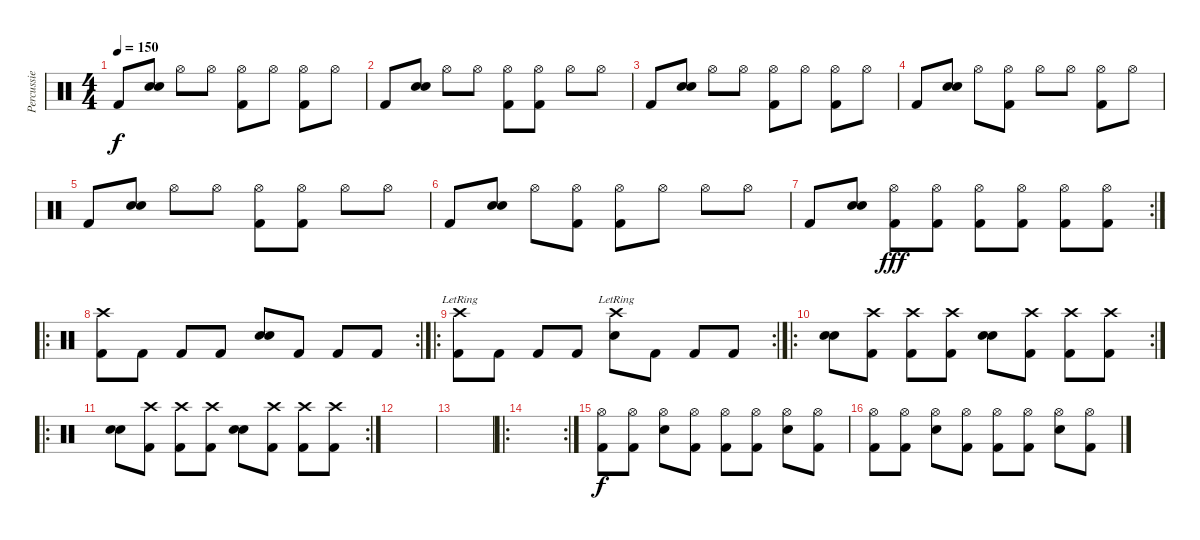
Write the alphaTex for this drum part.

\track ("Percussie" "Percussie") {instrument percussion}
\staff {score}
\articulation defaults
\ts (4 4)
\tempo 150
\clef neutral
\ks c "Kick (hit) 2".8{dy f}
("Snare (hit) 2" "Snare (hit) 2").8{bd 480} "Hi-Hat (open)".8 "Hi-Hat (open)".8 ("Hi-Hat (open)" "Kick (hit) 2").8 "Hi-Hat (open)".8 ("Hi-Hat (open)" "Kick (hit) 2").8 "Hi-Hat (open)".8 |
"Kick (hit) 2".8 ("Snare (hit) 2" "Snare (hit) 2").8{bd 480} "Hi-Hat (open)".8 "Hi-Hat (open)".8 ("Hi-Hat (open)" "Kick (hit) 2").8 ("Hi-Hat (open)" "Kick (hit) 2").8 "Hi-Hat (open)".8 "Hi-Hat (open)".8 |
"Kick (hit) 2".8 ("Snare (hit) 2" "Snare (hit) 2").8{bd 480} "Hi-Hat (open)".8 "Hi-Hat (open)".8 ("Hi-Hat (open)" "Kick (hit) 2").8 "Hi-Hat (open)".8 ("Hi-Hat (open)" "Kick (hit) 2").8 "Hi-Hat (open)".8 |
"Kick (hit) 2".8 ("Snare (hit) 2" "Snare (hit) 2").8{bd 480} "Hi-Hat (open)".8 ("Hi-Hat (open)" "Kick (hit) 2").8 "Hi-Hat (open)".8 "Hi-Hat (open)".8 ("Hi-Hat (open)" "Kick (hit) 2").8 "Hi-Hat (open)".8 |
"Kick (hit) 2".8 ("Snare (hit) 2" "Snare (hit) 2").8{bd 480} "Hi-Hat (open)".8 "Hi-Hat (open)".8 ("Hi-Hat (open)" "Kick (hit) 2").8 ("Hi-Hat (open)" "Kick (hit) 2").8 "Hi-Hat (open)".8 "Hi-Hat (open)".8 |
"Kick (hit) 2".8 ("Snare (hit) 2" "Snare (hit) 2").8{bd 480} "Hi-Hat (open)".8 ("Hi-Hat (open)" "Kick (hit) 2").8 ("Hi-Hat (open)" "Kick (hit) 2").8 "Hi-Hat (open)".8 "Hi-Hat (open)".8 "Hi-Hat (open)".8 |
\rc 2 "Kick (hit) 2".8
("Snare (hit) 2" "Snare (hit) 2").8{bd 480} ("Hi-Hat (open)" "Kick (hit) 2").8{dy fff} ("Hi-Hat (open)" "Kick (hit) 2").8 ("Hi-Hat (open)" "Kick (hit) 2").8 ("Hi-Hat (open)" "Kick (hit) 2").8 ("Hi-Hat (open)" "Kick (hit) 2").8 ("Hi-Hat (open)" "Kick (hit) 2").8 |
\ro
\rc 2
("Crash high (hit)" "Kick (hit) 2").8 "Kick (hit) 2".8 "Kick (hit) 2".8 "Kick (hit) 2".8 ("Snare (hit) 2" "Snare (hit) 2").8{bd 480} "Kick (hit) 2".8 "Kick (hit) 2".8 "Kick (hit) 2".8 |
\ro
\rc 2
("Crash high (hit)"{lr} "Kick (hit) 2").8 "Kick (hit) 2".8 "Kick (hit) 2".8 "Kick (hit) 2".8 ("Crash high (hit)"{lr} "Snare (hit) 2").8 "Kick (hit) 2".8 "Kick (hit) 2".8 "Kick (hit) 2".8 |
\ro
\rc 2
("Snare (hit) 2" "Snare (hit) 2").8{bd 480} ("Crash high (hit)" "Kick (hit) 2").8 ("Crash high (hit)" "Kick (hit) 2").8 ("Crash high (hit)" "Kick (hit) 2").8 ("Snare (hit) 2" "Snare (hit) 2").8{bd 480} ("Crash high (hit)" "Kick (hit) 2").8 ("Crash high (hit)" "Kick (hit) 2").8 ("Crash high (hit)" "Kick (hit) 2").8 |
\ro
\rc 2
("Snare (hit) 2" "Snare (hit) 2").8{bd 480} ("Crash high (hit)" "Kick (hit) 2").8 ("Crash high (hit)" "Kick (hit) 2").8 ("Crash high (hit)" "Kick (hit) 2").8 ("Snare (hit) 2" "Snare (hit) 2").8{bd 480} ("Crash high (hit)" "Kick (hit) 2").8 ("Crash high (hit)" "Kick (hit) 2").8 ("Crash high (hit)" "Kick (hit) 2").8 |
|
|
\ro
\rc 2
|
("Hi-Hat (open)" "Kick (hit) 2").8{dy f} ("Hi-Hat (open)" "Kick (hit) 2").8 ("Hi-Hat (open)" "Snare (hit) 2").8 ("Hi-Hat (open)" "Kick (hit) 2").8 ("Hi-Hat (open)" "Kick (hit) 2").8 ("Hi-Hat (open)" "Kick (hit) 2").8 ("Hi-Hat (open)" "Snare (hit) 2").8 ("Hi-Hat (open)" "Kick (hit) 2").8 |
("Hi-Hat (open)" "Kick (hit) 2").8 ("Hi-Hat (open)" "Kick (hit) 2").8 ("Hi-Hat (open)" "Snare (hit) 2").8 ("Hi-Hat (open)" "Kick (hit) 2").8 ("Hi-Hat (open)" "Kick (hit) 2").8 ("Hi-Hat (open)" "Kick (hit) 2").8 ("Hi-Hat (open)" "Snare (hit) 2").8 ("Hi-Hat (open)" "Kick (hit) 2").8
